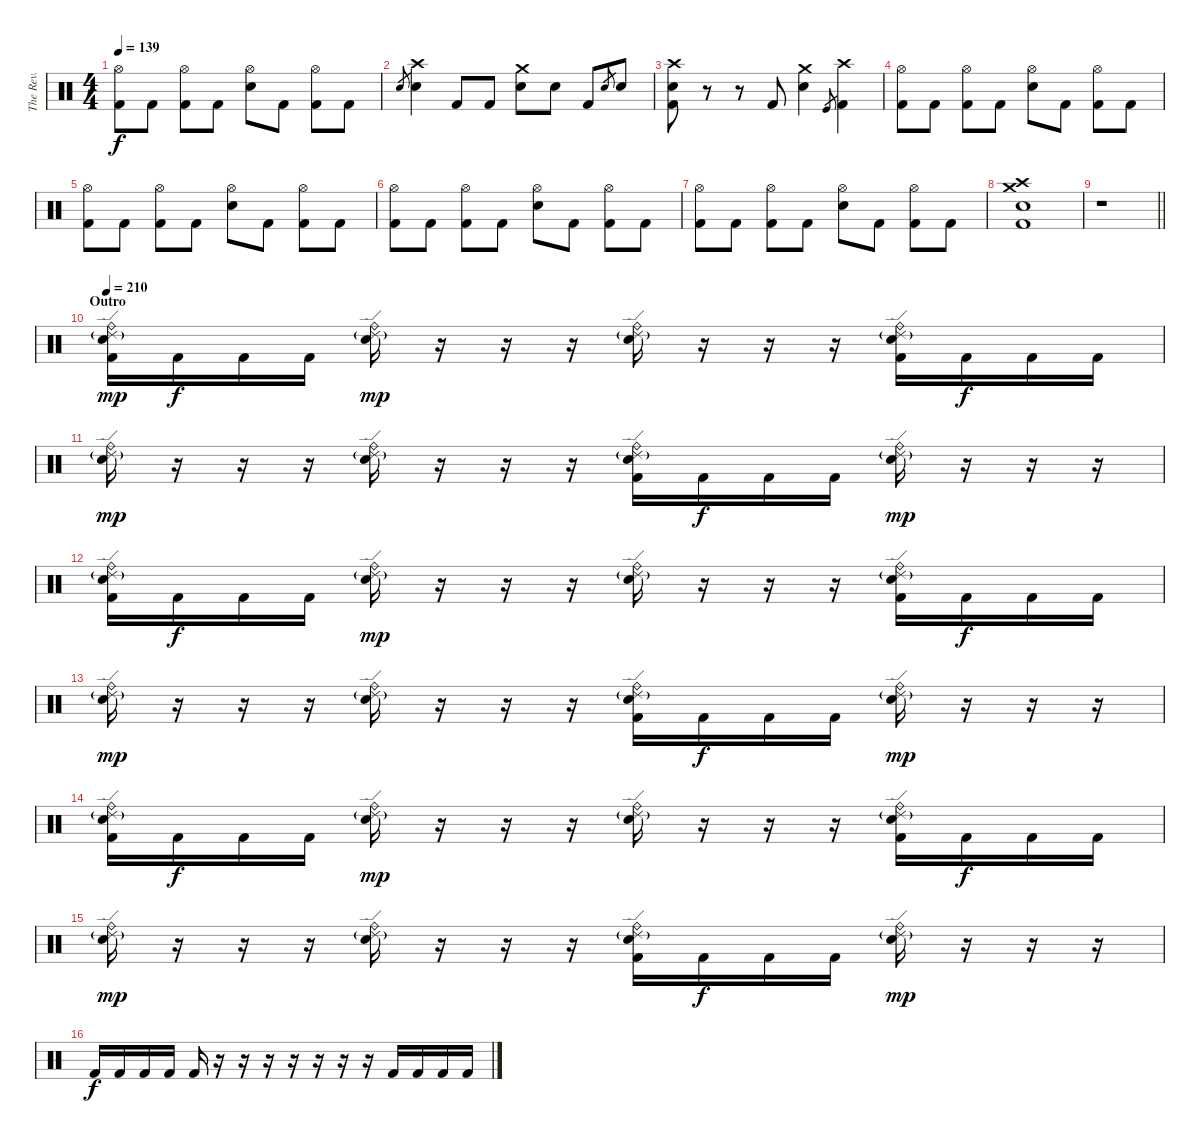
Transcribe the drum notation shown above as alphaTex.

\track ("The Rev." "The Rev.") {instrument percussion}
\staff {score}
\articulation defaults
\ts (4 4)
\tempo 139
\clef neutral
\ks c
("Hi-Hat (open)" "Kick (hit) 2").8{dy f} "Kick (hit) 2".8 ("Hi-Hat (open)" "Kick (hit) 2").8 "Kick (hit) 2".8 ("Hi-Hat (open)" "Electric Snare (hit)").8 "Kick (hit) 2".8 ("Hi-Hat (open)" "Kick (hit) 2").8 "Kick (hit) 2".8 |
"Electric Snare (hit)".8{gr} ("Crash high (hit)" "Electric Snare (hit)").4 "Kick (hit) 2".8 "Kick (hit) 2".8 ("Crash medium (hit)" "Electric Snare (hit)").8 "Electric Snare (hit)".8 "Kick (hit) 2".8 "Electric Snare (hit)".8{gr} "Electric Snare (hit)".8 |
("Crash high (hit)" "Electric Snare (hit)" "Kick (hit) 2").8 r.8 r.8 "Kick (hit) 2".8 ("Crash medium (hit)" "Electric Snare (hit)").4 "Kick (hit)".8{gr} ("Crash high (hit)" "Kick (hit) 2").4 |
("Hi-Hat (open)" "Kick (hit) 2").8 "Kick (hit) 2".8 ("Hi-Hat (open)" "Kick (hit) 2").8 "Kick (hit) 2".8 ("Hi-Hat (open)" "Electric Snare (hit)").8 "Kick (hit) 2".8 ("Hi-Hat (open)" "Kick (hit) 2").8 "Kick (hit) 2".8 |
("Hi-Hat (open)" "Kick (hit) 2").8 "Kick (hit) 2".8 ("Hi-Hat (open)" "Kick (hit) 2").8 "Kick (hit) 2".8 ("Hi-Hat (open)" "Electric Snare (hit)").8 "Kick (hit) 2".8 ("Hi-Hat (open)" "Kick (hit) 2").8 "Kick (hit) 2".8 |
("Hi-Hat (open)" "Kick (hit) 2").8 "Kick (hit) 2".8 ("Hi-Hat (open)" "Kick (hit) 2").8 "Kick (hit) 2".8 ("Hi-Hat (open)" "Electric Snare (hit)").8 "Kick (hit) 2".8 ("Hi-Hat (open)" "Kick (hit) 2").8 "Kick (hit) 2".8 |
("Hi-Hat (open)" "Kick (hit) 2").8 "Kick (hit) 2".8 ("Hi-Hat (open)" "Kick (hit) 2").8 "Kick (hit) 2".8 ("Hi-Hat (open)" "Electric Snare (hit)").8 "Kick (hit) 2".8 ("Hi-Hat (open)" "Kick (hit) 2").8 "Kick (hit) 2".8 |
("Crash high (hit)" "Crash medium (hit)" "Electric Snare (hit)" "Kick (hit) 2").1 |
\barLineRight lightlight
r.1 |
\section ("" "Outro")
\tempo 210
("Ride (edge) 2"{g} "Ride (bell)" "Electric Snare (hit)" "Kick (hit) 2").16{dy mp} "Kick (hit) 2".16{dy f} "Kick (hit) 2".16 "Kick (hit) 2".16 ("Ride (edge) 2"{g} "Ride (bell)" "Electric Snare (hit)").16{dy mp} r.16 r.16 r.16 ("Ride (edge) 2"{g} "Ride (bell)" "Electric Snare (hit)").16 r.16 r.16 r.16 ("Ride (edge) 2"{g} "Ride (bell)" "Electric Snare (hit)" "Kick (hit) 2").16 "Kick (hit) 2".16{dy f} "Kick (hit) 2".16 "Kick (hit) 2".16 |
("Ride (edge) 2"{g} "Ride (bell)" "Electric Snare (hit)").16{dy mp} r.16 r.16 r.16 ("Ride (edge) 2"{g} "Ride (bell)" "Electric Snare (hit)").16 r.16 r.16 r.16 ("Ride (edge) 2"{g} "Ride (bell)" "Electric Snare (hit)" "Kick (hit) 2").16 "Kick (hit) 2".16{dy f} "Kick (hit) 2".16 "Kick (hit) 2".16 ("Ride (edge) 2"{g} "Ride (bell)" "Electric Snare (hit)").16{dy mp} r.16 r.16 r.16 |
("Ride (edge) 2"{g} "Ride (bell)" "Electric Snare (hit)" "Kick (hit) 2").16 "Kick (hit) 2".16{dy f} "Kick (hit) 2".16 "Kick (hit) 2".16 ("Ride (edge) 2"{g} "Ride (bell)" "Electric Snare (hit)").16{dy mp} r.16 r.16 r.16 ("Ride (edge) 2"{g} "Ride (bell)" "Electric Snare (hit)").16 r.16 r.16 r.16 ("Ride (edge) 2"{g} "Ride (bell)" "Electric Snare (hit)" "Kick (hit) 2").16 "Kick (hit) 2".16{dy f} "Kick (hit) 2".16 "Kick (hit) 2".16 |
("Ride (edge) 2"{g} "Ride (bell)" "Electric Snare (hit)").16{dy mp} r.16 r.16 r.16 ("Ride (edge) 2"{g} "Ride (bell)" "Electric Snare (hit)").16 r.16 r.16 r.16 ("Ride (edge) 2"{g} "Ride (bell)" "Electric Snare (hit)" "Kick (hit) 2").16 "Kick (hit) 2".16{dy f} "Kick (hit) 2".16 "Kick (hit) 2".16 ("Ride (edge) 2"{g} "Ride (bell)" "Electric Snare (hit)").16{dy mp} r.16 r.16 r.16 |
("Ride (edge) 2"{g} "Ride (bell)" "Electric Snare (hit)" "Kick (hit) 2").16 "Kick (hit) 2".16{dy f} "Kick (hit) 2".16 "Kick (hit) 2".16 ("Ride (edge) 2"{g} "Ride (bell)" "Electric Snare (hit)").16{dy mp} r.16 r.16 r.16 ("Ride (edge) 2"{g} "Ride (bell)" "Electric Snare (hit)").16 r.16 r.16 r.16 ("Ride (edge) 2"{g} "Ride (bell)" "Electric Snare (hit)" "Kick (hit) 2").16 "Kick (hit) 2".16{dy f} "Kick (hit) 2".16 "Kick (hit) 2".16 |
("Ride (edge) 2"{g} "Ride (bell)" "Electric Snare (hit)").16{dy mp} r.16 r.16 r.16 ("Ride (edge) 2"{g} "Ride (bell)" "Electric Snare (hit)").16 r.16 r.16 r.16 ("Ride (edge) 2"{g} "Ride (bell)" "Electric Snare (hit)" "Kick (hit) 2").16 "Kick (hit) 2".16{dy f} "Kick (hit) 2".16 "Kick (hit) 2".16 ("Ride (edge) 2"{g} "Ride (bell)" "Electric Snare (hit)").16{dy mp} r.16 r.16 r.16 |
"Kick (hit) 2".16{dy f} "Kick (hit) 2".16 "Kick (hit) 2".16 "Kick (hit) 2".16 "Kick (hit) 2".16 r.16 r.16 r.16 r.16 r.16 r.16 r.16 "Kick (hit) 2".16 "Kick (hit) 2".16 "Kick (hit) 2".16 "Kick (hit) 2".16
